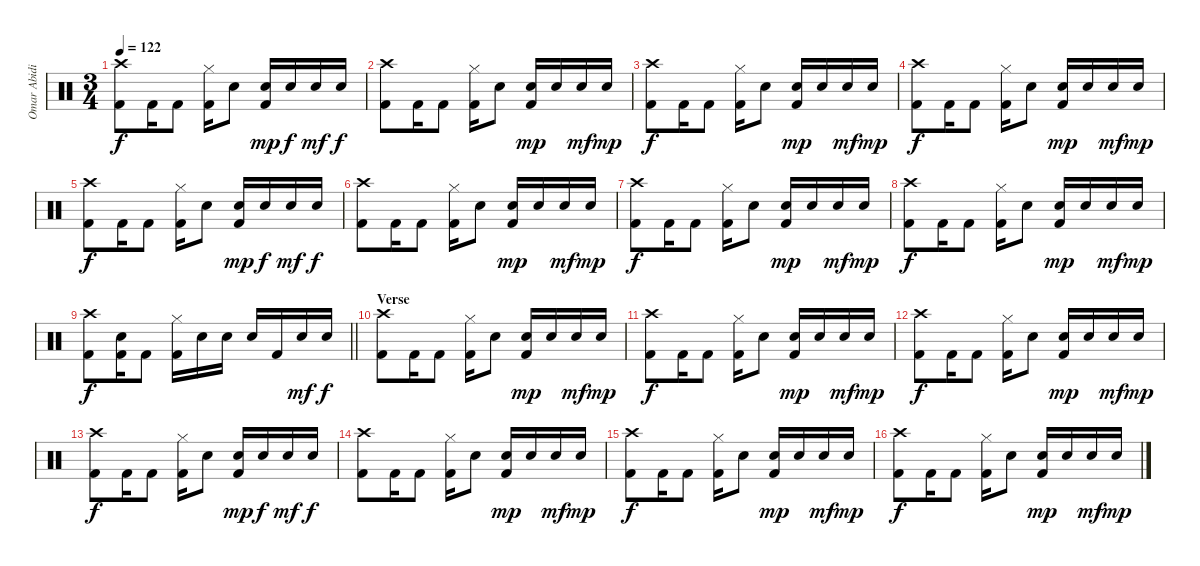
\track ("Omar Abidi" "Omar Abidi") {instrument percussion}
\staff {score}
\articulation defaults
\ts (3 4)
\tempo 122
\clef neutral
\ks c
("Crash high (hit)" "Kick (hit) 2").8{dy f} "Kick (hit) 2".16 "Kick (hit) 2".8 ("Hi-Hat (closed)" "Kick (hit) 2").16 "Electric Snare (hit)".8 ("Electric Snare (hit)" "Kick (hit) 2").16{dy mp} "Electric Snare (hit)".16{dy f} "Snare (hit) 2".16{dy mf} "Electric Snare (hit)".16{dy f} |
("Crash high (hit)" "Kick (hit) 2").8 "Kick (hit) 2".16 "Kick (hit) 2".8 ("Hi-Hat (closed)" "Kick (hit) 2").16 "Electric Snare (hit)".8 ("Snare (hit) 2" "Kick (hit) 2").16{dy mp} "Snare (hit) 2".16 "Snare (hit) 2".16{dy mf} "Snare (hit) 2".16{dy mp} |
("Crash high (hit)" "Kick (hit) 2").8{dy f} "Kick (hit) 2".16 "Kick (hit) 2".8 ("Hi-Hat (closed)" "Kick (hit) 2").16 "Electric Snare (hit)".8 ("Snare (hit) 2" "Kick (hit) 2").16{dy mp} "Snare (hit) 2".16 "Snare (hit) 2".16{dy mf} "Snare (hit) 2".16{dy mp} |
("Crash high (hit)" "Kick (hit) 2").8{dy f} "Kick (hit) 2".16 "Kick (hit) 2".8 ("Hi-Hat (closed)" "Kick (hit) 2").16 "Electric Snare (hit)".8 ("Snare (hit) 2" "Kick (hit) 2").16{dy mp} "Snare (hit) 2".16 "Snare (hit) 2".16{dy mf} "Snare (hit) 2".16{dy mp} |
("Crash high (hit)" "Kick (hit) 2").8{dy f} "Kick (hit) 2".16 "Kick (hit) 2".8 ("Hi-Hat (closed)" "Kick (hit) 2").16 "Electric Snare (hit)".8 ("Electric Snare (hit)" "Kick (hit) 2").16{dy mp} "Electric Snare (hit)".16{dy f} "Snare (hit) 2".16{dy mf} "Electric Snare (hit)".16{dy f} |
("Crash high (hit)" "Kick (hit) 2").8 "Kick (hit) 2".16 "Kick (hit) 2".8 ("Hi-Hat (closed)" "Kick (hit) 2").16 "Electric Snare (hit)".8 ("Snare (hit) 2" "Kick (hit) 2").16{dy mp} "Snare (hit) 2".16 "Snare (hit) 2".16{dy mf} "Snare (hit) 2".16{dy mp} |
("Crash high (hit)" "Kick (hit) 2").8{dy f} "Kick (hit) 2".16 "Kick (hit) 2".8 ("Hi-Hat (closed)" "Kick (hit) 2").16 "Electric Snare (hit)".8 ("Snare (hit) 2" "Kick (hit) 2").16{dy mp} "Snare (hit) 2".16 "Snare (hit) 2".16{dy mf} "Snare (hit) 2".16{dy mp} |
("Crash high (hit)" "Kick (hit) 2").8{dy f} "Kick (hit) 2".16 "Kick (hit) 2".8 ("Hi-Hat (closed)" "Kick (hit) 2").16 "Electric Snare (hit)".8 ("Snare (hit) 2" "Kick (hit) 2").16{dy mp} "Snare (hit) 2".16 "Snare (hit) 2".16{dy mf} "Snare (hit) 2".16{dy mp} |
\barLineRight lightlight
("Crash high (hit)" "Kick (hit) 2").8{dy f} ("Electric Snare (hit)" "Kick (hit) 2").16 "Kick (hit) 2".8 ("Hi-Hat (closed)" "Kick (hit) 2").16 "Electric Snare (hit)".16 "Electric Snare (hit)".16 "Electric Snare (hit)".16 "Kick (hit) 2".16 "Electric Snare (hit)".16{dy mf} "Electric Snare (hit)".16{dy f} |
\section ("" "Verse")
("Crash high (hit)" "Kick (hit) 2").8 "Kick (hit) 2".16 "Kick (hit) 2".8 ("Hi-Hat (closed)" "Kick (hit) 2").16 "Electric Snare (hit)".8 ("Snare (hit) 2" "Kick (hit) 2").16{dy mp} "Snare (hit) 2".16 "Snare (hit) 2".16{dy mf} "Snare (hit) 2".16{dy mp} |
("Crash high (hit)" "Kick (hit) 2").8{dy f} "Kick (hit) 2".16 "Kick (hit) 2".8 ("Hi-Hat (closed)" "Kick (hit) 2").16 "Electric Snare (hit)".8 ("Snare (hit) 2" "Kick (hit) 2").16{dy mp} "Snare (hit) 2".16 "Snare (hit) 2".16{dy mf} "Snare (hit) 2".16{dy mp} |
("Crash high (hit)" "Kick (hit) 2").8{dy f} "Kick (hit) 2".16 "Kick (hit) 2".8 ("Hi-Hat (closed)" "Kick (hit) 2").16 "Electric Snare (hit)".8 ("Snare (hit) 2" "Kick (hit) 2").16{dy mp} "Snare (hit) 2".16 "Snare (hit) 2".16{dy mf} "Snare (hit) 2".16{dy mp} |
("Crash high (hit)" "Kick (hit) 2").8{dy f} "Kick (hit) 2".16 "Kick (hit) 2".8 ("Hi-Hat (closed)" "Kick (hit) 2").16 "Electric Snare (hit)".8 ("Electric Snare (hit)" "Kick (hit) 2").16{dy mp} "Electric Snare (hit)".16{dy f} "Snare (hit) 2".16{dy mf} "Electric Snare (hit)".16{dy f} |
("Crash high (hit)" "Kick (hit) 2").8 "Kick (hit) 2".16 "Kick (hit) 2".8 ("Hi-Hat (closed)" "Kick (hit) 2").16 "Electric Snare (hit)".8 ("Snare (hit) 2" "Kick (hit) 2").16{dy mp} "Snare (hit) 2".16 "Snare (hit) 2".16{dy mf} "Snare (hit) 2".16{dy mp} |
("Crash high (hit)" "Kick (hit) 2").8{dy f} "Kick (hit) 2".16 "Kick (hit) 2".8 ("Hi-Hat (closed)" "Kick (hit) 2").16 "Electric Snare (hit)".8 ("Snare (hit) 2" "Kick (hit) 2").16{dy mp} "Snare (hit) 2".16 "Snare (hit) 2".16{dy mf} "Snare (hit) 2".16{dy mp} |
("Crash high (hit)" "Kick (hit) 2").8{dy f} "Kick (hit) 2".16 "Kick (hit) 2".8 ("Hi-Hat (closed)" "Kick (hit) 2").16 "Electric Snare (hit)".8 ("Snare (hit) 2" "Kick (hit) 2").16{dy mp} "Snare (hit) 2".16 "Snare (hit) 2".16{dy mf} "Snare (hit) 2".16{dy mp}
